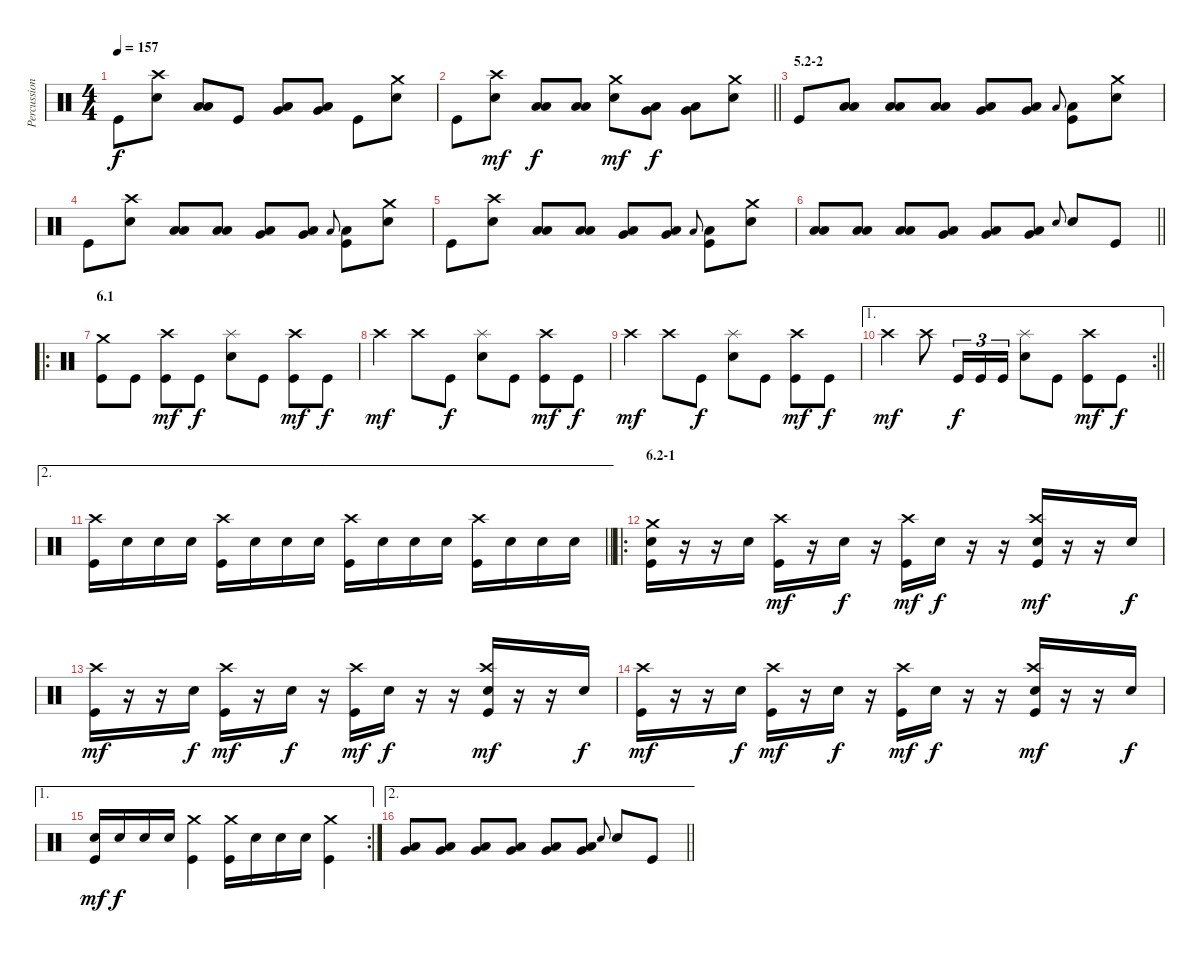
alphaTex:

\track ("Percussion" "Percussion") {instrument percussion}
\staff {score}
\articulation defaults
\ts (4 4)
\tempo 157
\clef neutral
\ks c "Kick (hit)".8{dy f}
("Crash high (hit)" "Snare (hit) 2").8 ("Low Tom (hit)" "Low Floor Tom (hit)").8 "Kick (hit)".8 ("Very Low Tom (hit)" "Low Floor Tom (hit)").8 ("Very Low Tom (hit)" "Low Floor Tom (hit)").8 "Kick (hit)".8 ("Crash medium (hit)" "Snare (hit) 2").8 |
\barLineRight lightlight "Kick (hit)".8
("Crash high (hit)" "Snare (hit) 2").8{dy mf} ("Low Tom (hit)" "Low Floor Tom (hit)").8{dy f} ("Low Tom (hit)" "Low Floor Tom (hit)").8 ("Crash medium (hit)" "Snare (hit) 2").8{dy mf} ("Very Low Tom (hit)" "Low Floor Tom (hit)").8{dy f} ("Very Low Tom (hit)" "Low Floor Tom (hit)").8 ("Crash medium (hit)" "Snare (hit) 2").8 |
\section ("" "5.2-2")
"Kick (hit)".8 ("Low Tom (hit)" "Low Floor Tom (hit)").8 ("Low Tom (hit)" "Low Floor Tom (hit)").8 ("Low Tom (hit)" "Low Floor Tom (hit)").8 ("Very Low Tom (hit)" "Low Floor Tom (hit)").8 ("Very Low Tom (hit)" "Low Floor Tom (hit)").8 "Low Floor Tom (hit)".8{gr onbeat} ("Low Floor Tom (hit)" "Kick (hit)").8 ("Crash medium (hit)" "Snare (hit) 2").8 |
"Kick (hit)".8 ("Crash high (hit)" "Snare (hit) 2").8 ("Low Tom (hit)" "Low Floor Tom (hit)").8 ("Low Tom (hit)" "Low Floor Tom (hit)").8 ("Very Low Tom (hit)" "Low Floor Tom (hit)").8 ("Very Low Tom (hit)" "Low Floor Tom (hit)").8 "Low Floor Tom (hit)".8{gr onbeat} ("Low Floor Tom (hit)" "Kick (hit)").8 ("Crash medium (hit)" "Snare (hit) 2").8 |
"Kick (hit)".8 ("Crash high (hit)" "Snare (hit) 2").8 ("Low Tom (hit)" "Low Floor Tom (hit)").8 ("Low Tom (hit)" "Low Floor Tom (hit)").8 ("Very Low Tom (hit)" "Low Floor Tom (hit)").8 ("Very Low Tom (hit)" "Low Floor Tom (hit)").8 "Low Floor Tom (hit)".8{gr onbeat} ("Low Floor Tom (hit)" "Kick (hit)").8 ("Crash medium (hit)" "Snare (hit) 2").8 |
\barLineRight lightlight
("Low Tom (hit)" "Low Floor Tom (hit)").8 ("Low Tom (hit)" "Low Floor Tom (hit)").8 ("Low Tom (hit)" "Low Floor Tom (hit)").8 ("Very Low Tom (hit)" "Low Floor Tom (hit)").8 ("Very Low Tom (hit)" "Low Floor Tom (hit)").8 ("Very Low Tom (hit)" "Low Floor Tom (hit)").8 "Snare (hit) 2".8{gr onbeat} "Snare (hit) 2".8 "Kick (hit)".8 |
\ro
\section ("" "6.1")
("Crash medium (hit)" "Kick (hit)").8 "Kick (hit)".8 ("Crash high (hit)" "Kick (hit)").8{dy mf} "Kick (hit)".8{dy f} ("Splash (hit)" "Snare (hit) 2").8 "Kick (hit)".8 ("Crash high (hit)" "Kick (hit)").8{dy mf} "Kick (hit)".8{dy f} |
"Crash high (hit)".4{dy mf} "Crash high (hit)".8 "Kick (hit)".8{dy f} ("Splash (hit)" "Snare (hit) 2").8 "Kick (hit)".8 ("Crash high (hit)" "Kick (hit)").8{dy mf} "Kick (hit)".8{dy f} |
"Crash high (hit)".4{dy mf} "Crash high (hit)".8 "Kick (hit)".8{dy f} ("Splash (hit)" "Snare (hit) 2").8 "Kick (hit)".8 ("Crash high (hit)" "Kick (hit)").8{dy mf} "Kick (hit)".8{dy f} |
\ae 1
\rc 2
\barLineRight lightlight "Crash high (hit)".4{dy mf} "Crash high (hit)".8 "Kick (hit)".16{tu (3 2) dy f} "Kick (hit)".16{tu (3 2)} "Kick (hit)".16{tu (3 2)}
("Splash (hit)" "Snare (hit) 2").8 "Kick (hit)".8 ("Crash high (hit)" "Kick (hit)").8{dy mf} "Kick (hit)".8{dy f} |
\ae 2
\barLineRight lightlight
("Crash high (hit)" "Kick (hit)").16 "Snare (hit) 2".16 "Snare (hit) 2".16 "Snare (hit) 2".16 ("Crash high (hit)" "Kick (hit)").16 "Snare (hit) 2".16 "Snare (hit) 2".16 "Snare (hit) 2".16 ("Crash high (hit)" "Kick (hit)").16 "Snare (hit) 2".16 "Snare (hit) 2".16 "Snare (hit) 2".16 ("Crash high (hit)" "Kick (hit)").16 "Snare (hit) 2".16 "Snare (hit) 2".16 "Snare (hit) 2".16 |
\ro
\section ("" "6.2-1")
("Crash medium (hit)" "Snare (hit) 2" "Kick (hit)").16 r.16 r.16 "Snare (hit) 2".16 ("Crash high (hit)" "Kick (hit)").16{dy mf} r.16 "Snare (hit) 2".16{dy f} r.16 ("Crash high (hit)" "Kick (hit)").16{dy mf} "Snare (hit) 2".16{dy f} r.16 r.16 ("Crash high (hit)" "Snare (hit) 2" "Kick (hit)").16{dy mf} r.16 r.16 "Snare (hit) 2".16{dy f} |
("Crash high (hit)" "Kick (hit)").16{dy mf} r.16 r.16 "Snare (hit) 2".16{dy f} ("Crash high (hit)" "Kick (hit)").16{dy mf} r.16 "Snare (hit) 2".16{dy f} r.16 ("Crash high (hit)" "Kick (hit)").16{dy mf} "Snare (hit) 2".16{dy f} r.16 r.16 ("Crash high (hit)" "Snare (hit) 2" "Kick (hit)").16{dy mf} r.16 r.16 "Snare (hit) 2".16{dy f} |
("Crash high (hit)" "Kick (hit)").16{dy mf} r.16 r.16 "Snare (hit) 2".16{dy f} ("Crash high (hit)" "Kick (hit)").16{dy mf} r.16 "Snare (hit) 2".16{dy f} r.16 ("Crash high (hit)" "Kick (hit)").16{dy mf} "Snare (hit) 2".16{dy f} r.16 r.16 ("Crash high (hit)" "Snare (hit) 2" "Kick (hit)").16{dy mf} r.16 r.16 "Snare (hit) 2".16{dy f} |
\ae 1
\rc 2
("Snare (hit) 2" "Kick (hit)").16{dy mf} "Snare (hit) 2".16{dy f} "Snare (hit) 2".16 "Snare (hit) 2".16 ("Crash medium (hit)" "Kick (hit)").4 ("Crash medium (hit)" "Kick (hit)").16 "Snare (hit) 2".16 "Snare (hit) 2".16 "Snare (hit) 2".16 ("Crash medium (hit)" "Kick (hit)").4 |
\ae 2
\barLineRight lightlight
("Very Low Tom (hit)" "Low Floor Tom (hit)").8 ("Very Low Tom (hit)" "Low Floor Tom (hit)").8 ("Very Low Tom (hit)" "Low Floor Tom (hit)").8 ("Very Low Tom (hit)" "Low Floor Tom (hit)").8 ("Very Low Tom (hit)" "Low Floor Tom (hit)").8 ("Very Low Tom (hit)" "Low Floor Tom (hit)").8 "Snare (hit) 2".8{gr onbeat} "Snare (hit) 2".8 "Kick (hit)".8
